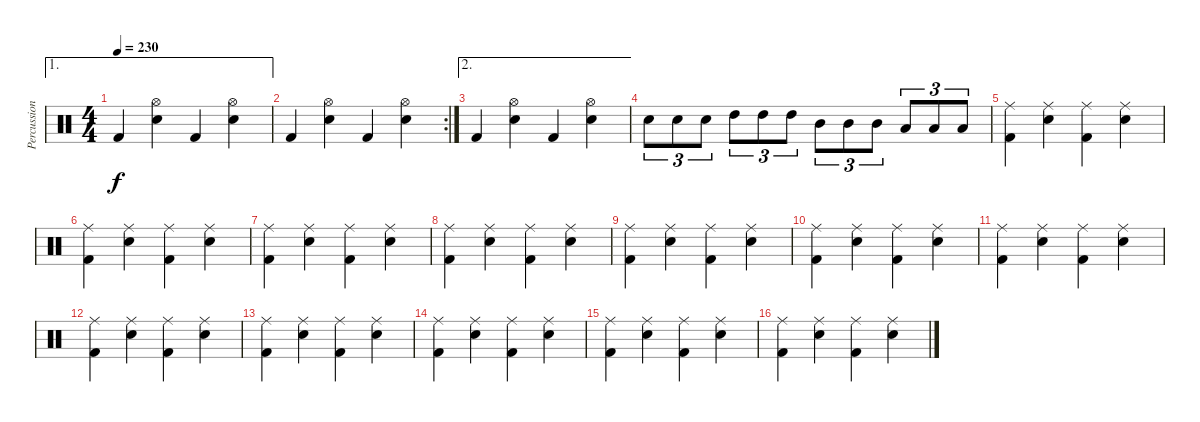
\track ("Percussion" "Percussion") {instrument percussion}
\staff {score}
\articulation defaults
\ae 1
\ts (4 4)
\tempo 230
\clef neutral
\ks c "Kick (hit) 2".4{dy f}
("Hi-Hat (open)" "Electric Snare (hit)").4 "Kick (hit) 2".4 ("Hi-Hat (open)" "Electric Snare (hit)").4 |
\rc 2 "Kick (hit) 2".4
("Hi-Hat (open)" "Electric Snare (hit)").4 "Kick (hit) 2".4 ("Hi-Hat (open)" "Electric Snare (hit)").4 |
\ae 2 "Kick (hit) 2".4
("Hi-Hat (open)" "Electric Snare (hit)").4 "Kick (hit) 2".4 ("Hi-Hat (open)" "Electric Snare (hit)").4 |
"Electric Snare (hit)".8{tu (3 2)} "Electric Snare (hit)".8{tu (3 2)} "Electric Snare (hit)".8{tu (3 2)} "High Tom (hit)".8{tu (3 2)} "High Tom (hit)".8{tu (3 2)} "High Tom (hit)".8{tu (3 2)} "Mid Tom (hit)".8{tu (3 2)} "Mid Tom (hit)".8{tu (3 2)} "Mid Tom (hit)".8{tu (3 2)} "Low Tom (hit)".8{tu (3 2)} "Low Tom (hit)".8{tu (3 2)} "Low Tom (hit)".8{tu (3 2)} |
("Ride (middle)" "Kick (hit) 2").4 ("Ride (middle)" "Electric Snare (hit)").4 ("Ride (middle)" "Kick (hit) 2").4 ("Ride (middle)" "Electric Snare (hit)").4 |
("Ride (middle)" "Kick (hit) 2").4 ("Ride (middle)" "Electric Snare (hit)").4 ("Ride (middle)" "Kick (hit) 2").4 ("Ride (middle)" "Electric Snare (hit)").4 |
("Ride (middle)" "Kick (hit) 2").4 ("Ride (middle)" "Electric Snare (hit)").4 ("Ride (middle)" "Kick (hit) 2").4 ("Ride (middle)" "Electric Snare (hit)").4 |
("Ride (middle)" "Kick (hit) 2").4 ("Ride (middle)" "Electric Snare (hit)").4 ("Ride (middle)" "Kick (hit) 2").4 ("Ride (middle)" "Electric Snare (hit)").4 |
("Ride (middle)" "Kick (hit) 2").4 ("Ride (middle)" "Electric Snare (hit)").4 ("Ride (middle)" "Kick (hit) 2").4 ("Ride (middle)" "Electric Snare (hit)").4 |
("Ride (middle)" "Kick (hit) 2").4 ("Ride (middle)" "Electric Snare (hit)").4 ("Ride (middle)" "Kick (hit) 2").4 ("Ride (middle)" "Electric Snare (hit)").4 |
("Ride (middle)" "Kick (hit) 2").4 ("Ride (middle)" "Electric Snare (hit)").4 ("Ride (middle)" "Kick (hit) 2").4 ("Ride (middle)" "Electric Snare (hit)").4 |
("Ride (middle)" "Kick (hit) 2").4 ("Ride (middle)" "Electric Snare (hit)").4 ("Ride (middle)" "Kick (hit) 2").4 ("Ride (middle)" "Electric Snare (hit)").4 |
("Ride (middle)" "Kick (hit) 2").4 ("Ride (middle)" "Electric Snare (hit)").4 ("Ride (middle)" "Kick (hit) 2").4 ("Ride (middle)" "Electric Snare (hit)").4 |
("Ride (middle)" "Kick (hit) 2").4 ("Ride (middle)" "Electric Snare (hit)").4 ("Ride (middle)" "Kick (hit) 2").4 ("Ride (middle)" "Electric Snare (hit)").4 |
("Ride (middle)" "Kick (hit) 2").4 ("Ride (middle)" "Electric Snare (hit)").4 ("Ride (middle)" "Kick (hit) 2").4 ("Ride (middle)" "Electric Snare (hit)").4 |
("Ride (middle)" "Kick (hit) 2").4 ("Ride (middle)" "Electric Snare (hit)").4 ("Ride (middle)" "Kick (hit) 2").4 ("Ride (middle)" "Electric Snare (hit)").4
